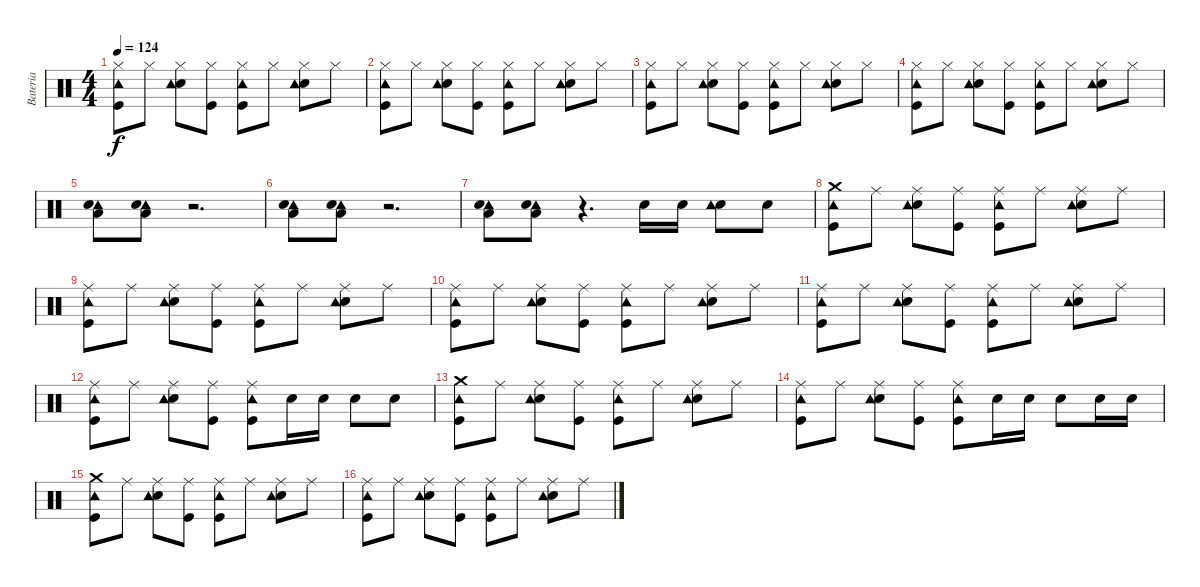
\track ("Bateria" "Bateria") {instrument percussion}
\staff {score}
\articulation defaults
\ts (4 4)
\tempo 124
\clef neutral
\ks c
("Hi-Hat (closed)" "Kick (hit)" "Tambourine (hit)").8{dy f} "Hi-Hat (closed)".8 ("Hi-Hat (closed)" "Snare (hit) 2" "Tambourine (hit)").8 ("Hi-Hat (closed)" "Kick (hit)").8 ("Hi-Hat (closed)" "Kick (hit)" "Tambourine (hit)").8 "Hi-Hat (closed)".8 ("Hi-Hat (closed)" "Snare (hit) 2" "Tambourine (hit)").8 "Hi-Hat (closed)".8 |
("Hi-Hat (closed)" "Kick (hit)" "Tambourine (hit)").8 "Hi-Hat (closed)".8 ("Hi-Hat (closed)" "Snare (hit) 2" "Tambourine (hit)").8 ("Hi-Hat (closed)" "Kick (hit)").8 ("Hi-Hat (closed)" "Kick (hit)" "Tambourine (hit)").8 "Hi-Hat (closed)".8 ("Hi-Hat (closed)" "Snare (hit) 2" "Tambourine (hit)").8 "Hi-Hat (closed)".8 |
("Hi-Hat (closed)" "Kick (hit)" "Tambourine (hit)").8 "Hi-Hat (closed)".8 ("Hi-Hat (closed)" "Snare (hit) 2" "Tambourine (hit)").8 ("Hi-Hat (closed)" "Kick (hit)").8 ("Hi-Hat (closed)" "Kick (hit)" "Tambourine (hit)").8 "Hi-Hat (closed)".8 ("Hi-Hat (closed)" "Snare (hit) 2" "Tambourine (hit)").8 "Hi-Hat (closed)".8 |
("Hi-Hat (closed)" "Kick (hit)" "Tambourine (hit)").8 "Hi-Hat (closed)".8 ("Hi-Hat (closed)" "Snare (hit) 2" "Tambourine (hit)").8 ("Hi-Hat (closed)" "Kick (hit)").8 ("Hi-Hat (closed)" "Kick (hit)" "Tambourine (hit)").8 "Hi-Hat (closed)".8 ("Hi-Hat (closed)" "Snare (hit) 2" "Tambourine (hit)").8 "Hi-Hat (closed)".8 |
("Tambourine (hit)" "Snare (hit) 2" "Low Floor Tom (hit)").8 ("Tambourine (hit)" "Snare (hit) 2" "Low Floor Tom (hit)").8 r.2{d} |
("Tambourine (hit)" "Snare (hit) 2" "Low Floor Tom (hit)").8 ("Tambourine (hit)" "Snare (hit) 2" "Low Floor Tom (hit)").8 r.2{d} |
("Tambourine (hit)" "Snare (hit) 2" "Low Floor Tom (hit)").8 ("Tambourine (hit)" "Snare (hit) 2" "Low Floor Tom (hit)").8 r.4{d} "Snare (hit) 2".16 "Snare (hit) 2".16 ("Snare (hit) 2" "Tambourine (hit)").8 "Snare (hit) 2".8 |
("Crash medium (hit)" "Kick (hit)" "Tambourine (hit)").8 "Ride (middle)".8 ("Ride (middle)" "Snare (hit) 2" "Tambourine (hit)").8 ("Ride (middle)" "Kick (hit)").8 ("Ride (middle)" "Kick (hit)" "Tambourine (hit)").8 "Ride (middle)".8 ("Ride (middle)" "Snare (hit) 2" "Tambourine (hit)").8 "Ride (middle)".8 |
("Ride (middle)" "Kick (hit)" "Tambourine (hit)").8 "Ride (middle)".8 ("Ride (middle)" "Snare (hit) 2" "Tambourine (hit)").8 ("Ride (middle)" "Kick (hit)").8 ("Ride (middle)" "Kick (hit)" "Tambourine (hit)").8 "Ride (middle)".8 ("Ride (middle)" "Snare (hit) 2" "Tambourine (hit)").8 "Ride (middle)".8 |
("Ride (middle)" "Kick (hit)" "Tambourine (hit)").8 "Ride (middle)".8 ("Ride (middle)" "Snare (hit) 2" "Tambourine (hit)").8 ("Ride (middle)" "Kick (hit)").8 ("Ride (middle)" "Kick (hit)" "Tambourine (hit)").8 "Ride (middle)".8 ("Ride (middle)" "Snare (hit) 2" "Tambourine (hit)").8 "Ride (middle)".8 |
("Ride (middle)" "Kick (hit)" "Tambourine (hit)").8 "Ride (middle)".8 ("Ride (middle)" "Snare (hit) 2" "Tambourine (hit)").8 ("Ride (middle)" "Kick (hit)").8 ("Ride (middle)" "Kick (hit)" "Tambourine (hit)").8 "Ride (middle)".8 ("Ride (middle)" "Snare (hit) 2" "Tambourine (hit)").8 "Ride (middle)".8 |
("Ride (middle)" "Kick (hit)" "Tambourine (hit)").8 "Ride (middle)".8 ("Ride (middle)" "Snare (hit) 2" "Tambourine (hit)").8 ("Ride (middle)" "Kick (hit)").8 ("Ride (middle)" "Kick (hit)" "Tambourine (hit)").8 "Snare (hit) 2".16 "Snare (hit) 2".16 "Snare (hit) 2".8 "Snare (hit) 2".8 |
("Crash medium (hit)" "Kick (hit)" "Tambourine (hit)").8 "Ride (middle)".8 ("Ride (middle)" "Snare (hit) 2" "Tambourine (hit)").8 ("Ride (middle)" "Kick (hit)").8 ("Ride (middle)" "Kick (hit)" "Tambourine (hit)").8 "Ride (middle)".8 ("Ride (middle)" "Snare (hit) 2" "Tambourine (hit)").8 "Ride (middle)".8 |
("Ride (middle)" "Kick (hit)" "Tambourine (hit)").8 "Ride (middle)".8 ("Ride (middle)" "Snare (hit) 2" "Tambourine (hit)").8 ("Ride (middle)" "Kick (hit)").8 ("Ride (middle)" "Kick (hit)" "Tambourine (hit)").8 "Snare (hit) 2".16 "Snare (hit) 2".16 "Snare (hit) 2".8 "Snare (hit) 2".16 "Snare (hit) 2".16 |
("Crash medium (hit)" "Kick (hit)" "Tambourine (hit)").8 "Ride (middle)".8 ("Ride (middle)" "Snare (hit) 2" "Tambourine (hit)").8 ("Ride (middle)" "Kick (hit)").8 ("Ride (middle)" "Kick (hit)" "Tambourine (hit)").8 "Ride (middle)".8 ("Ride (middle)" "Snare (hit) 2" "Tambourine (hit)").8 "Ride (middle)".8 |
("Ride (middle)" "Kick (hit)" "Tambourine (hit)").8 "Ride (middle)".8 ("Ride (middle)" "Snare (hit) 2" "Tambourine (hit)").8 ("Ride (middle)" "Kick (hit)").8 ("Ride (middle)" "Kick (hit)" "Tambourine (hit)").8 "Ride (middle)".8 ("Ride (middle)" "Snare (hit) 2" "Tambourine (hit)").8 "Ride (middle)".8
